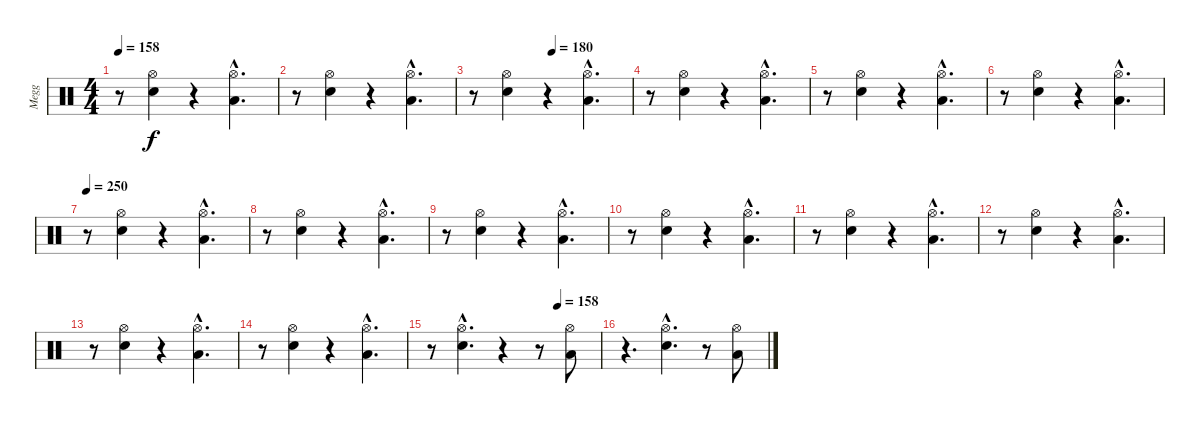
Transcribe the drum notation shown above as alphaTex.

\track ("Megg" "Megg") {instrument percussion}
\staff {score}
\articulation defaults
\ts (4 4)
\tempo 158
\clef neutral
\ks c
r.8{dy f} ("Electric Snare (hit)" "Hi-Hat (open)").4 r.4 ("Low Tom (hit)"{hac} "Hi-Hat (open)"{hac}).4{d} |
r.8 ("Electric Snare (hit)" "Hi-Hat (open)").4 r.4 ("Low Tom (hit)"{hac} "Hi-Hat (open)"{hac}).4{d} |
\tempo (180 0.5)
r.8 ("Electric Snare (hit)" "Hi-Hat (open)").4 r.4 ("Low Tom (hit)"{hac} "Hi-Hat (open)"{hac}).4{d} |
r.8 ("Electric Snare (hit)" "Hi-Hat (open)").4 r.4 ("Low Tom (hit)"{hac} "Hi-Hat (open)"{hac}).4{d} |
r.8 ("Electric Snare (hit)" "Hi-Hat (open)").4 r.4 ("Low Tom (hit)"{hac} "Hi-Hat (open)"{hac}).4{d} |
r.8 ("Electric Snare (hit)" "Hi-Hat (open)").4 r.4 ("Low Tom (hit)"{hac} "Hi-Hat (open)"{hac}).4{d} |
\tempo 250
r.8 ("Electric Snare (hit)" "Hi-Hat (open)").4 r.4 ("Low Tom (hit)"{hac} "Hi-Hat (open)"{hac}).4{d} |
r.8 ("Electric Snare (hit)" "Hi-Hat (open)").4 r.4 ("Low Tom (hit)"{hac} "Hi-Hat (open)"{hac}).4{d} |
r.8 ("Electric Snare (hit)" "Hi-Hat (open)").4 r.4 ("Low Tom (hit)"{hac} "Hi-Hat (open)"{hac}).4{d} |
r.8 ("Electric Snare (hit)" "Hi-Hat (open)").4 r.4 ("Low Tom (hit)"{hac} "Hi-Hat (open)"{hac}).4{d} |
r.8 ("Electric Snare (hit)" "Hi-Hat (open)").4 r.4 ("Low Tom (hit)"{hac} "Hi-Hat (open)"{hac}).4{d} |
r.8 ("Electric Snare (hit)" "Hi-Hat (open)").4 r.4 ("Low Tom (hit)"{hac} "Hi-Hat (open)"{hac}).4{d} |
r.8 ("Electric Snare (hit)" "Hi-Hat (open)").4 r.4 ("Low Tom (hit)"{hac} "Hi-Hat (open)"{hac}).4{d} |
r.8 ("Electric Snare (hit)" "Hi-Hat (open)").4 r.4 ("Low Tom (hit)"{hac} "Hi-Hat (open)"{hac}).4{d} |
\tempo (158 0.75)
r.8 ("Electric Snare (hit)"{hac} "Hi-Hat (open)"{hac}).4{d} r.4 r.8 ("Low Tom (hit)" "Hi-Hat (open)").8 |
r.4{d} ("Electric Snare (hit)"{hac} "Hi-Hat (open)"{hac}).4{d} r.8 ("Low Tom (hit)" "Hi-Hat (open)").8
